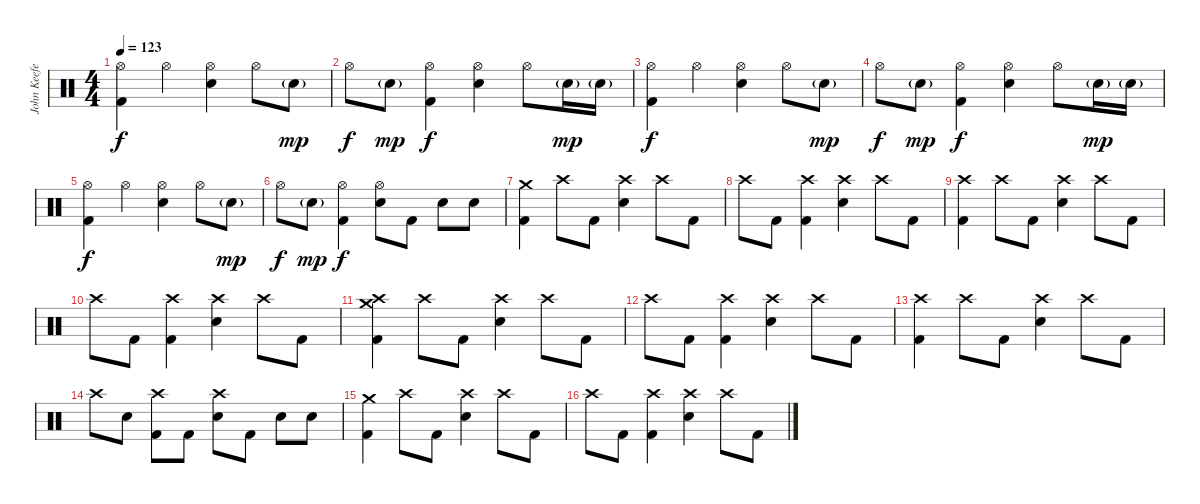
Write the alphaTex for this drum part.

\track ("John Keefe - Drums" "John Keefe") {instrument percussion}
\staff {score}
\articulation defaults
\ts (4 4)
\tempo 123
\clef neutral
\ks c
("Hi-Hat (open)" "Kick (hit) 2").4{dy f} "Hi-Hat (open)".4 ("Hi-Hat (open)" "Snare (hit) 2").4 "Hi-Hat (open)".8 "Snare (hit) 2"{g}.8{dy mp} |
"Hi-Hat (open)".8{dy f} "Snare (hit) 2"{g}.8{dy mp} ("Hi-Hat (open)" "Kick (hit) 2").4{dy f} ("Hi-Hat (open)" "Snare (hit) 2").4 "Hi-Hat (open)".8 "Snare (hit) 2"{g}.16{dy mp} "Snare (hit) 2"{g}.16 |
("Hi-Hat (open)" "Kick (hit) 2").4{dy f} "Hi-Hat (open)".4 ("Hi-Hat (open)" "Snare (hit) 2").4 "Hi-Hat (open)".8 "Snare (hit) 2"{g}.8{dy mp} |
"Hi-Hat (open)".8{dy f} "Snare (hit) 2"{g}.8{dy mp} ("Hi-Hat (open)" "Kick (hit) 2").4{dy f} ("Hi-Hat (open)" "Snare (hit) 2").4 "Hi-Hat (open)".8 "Snare (hit) 2"{g}.16{dy mp} "Snare (hit) 2"{g}.16 |
("Hi-Hat (open)" "Kick (hit) 2").4{dy f} "Hi-Hat (open)".4 ("Hi-Hat (open)" "Snare (hit) 2").4 "Hi-Hat (open)".8 "Snare (hit) 2"{g}.8{dy mp} |
"Hi-Hat (open)".8{dy f} "Snare (hit) 2"{g}.8{dy mp} ("Hi-Hat (open)" "Kick (hit) 2").4{dy f} ("Hi-Hat (open)" "Snare (hit) 2").8 "Kick (hit) 2".8 "Snare (hit) 2".8 "Snare (hit) 2".8 |
("Crash medium (hit)" "Kick (hit) 2").4 "Crash high (hit)".8 "Kick (hit) 2".8 ("Crash high (hit)" "Snare (hit) 2").4 "Crash high (hit)".8 "Kick (hit) 2".8 |
"Crash high (hit)".8 "Kick (hit) 2".8 ("Crash high (hit)" "Kick (hit) 2").4 ("Crash high (hit)" "Snare (hit) 2").4 "Crash high (hit)".8 "Kick (hit) 2".8 |
("Crash high (hit)" "Kick (hit) 2").4 "Crash high (hit)".8 "Kick (hit) 2".8 ("Crash high (hit)" "Snare (hit) 2").4 "Crash high (hit)".8 "Kick (hit) 2".8 |
"Crash high (hit)".8 "Kick (hit) 2".8 ("Crash high (hit)" "Kick (hit) 2").4 ("Crash high (hit)" "Snare (hit) 2").4 "Crash high (hit)".8 "Kick (hit) 2".8 |
("Crash high (hit)" "Crash medium (hit)" "Kick (hit) 2").4 "Crash high (hit)".8 "Kick (hit) 2".8 ("Crash high (hit)" "Snare (hit) 2").4 "Crash high (hit)".8 "Kick (hit) 2".8 |
"Crash high (hit)".8 "Kick (hit) 2".8 ("Crash high (hit)" "Kick (hit) 2").4 ("Crash high (hit)" "Snare (hit) 2").4 "Crash high (hit)".8 "Kick (hit) 2".8 |
("Crash high (hit)" "Kick (hit) 2").4 "Crash high (hit)".8 "Kick (hit) 2".8 ("Crash high (hit)" "Snare (hit) 2").4 "Crash high (hit)".8 "Kick (hit) 2".8 |
"Crash high (hit)".8 "Snare (hit) 2".8 ("Crash high (hit)" "Kick (hit) 2").8 "Kick (hit) 2".8 ("Crash high (hit)" "Snare (hit) 2").8 "Kick (hit) 2".8 "Snare (hit) 2".8 "Snare (hit) 2".8 |
("Crash medium (hit)" "Kick (hit) 2").4 "Crash high (hit)".8 "Kick (hit) 2".8 ("Crash high (hit)" "Snare (hit) 2").4 "Crash high (hit)".8 "Kick (hit) 2".8 |
"Crash high (hit)".8 "Kick (hit) 2".8 ("Crash high (hit)" "Kick (hit) 2").4 ("Crash high (hit)" "Snare (hit) 2").4 "Crash high (hit)".8 "Kick (hit) 2".8
